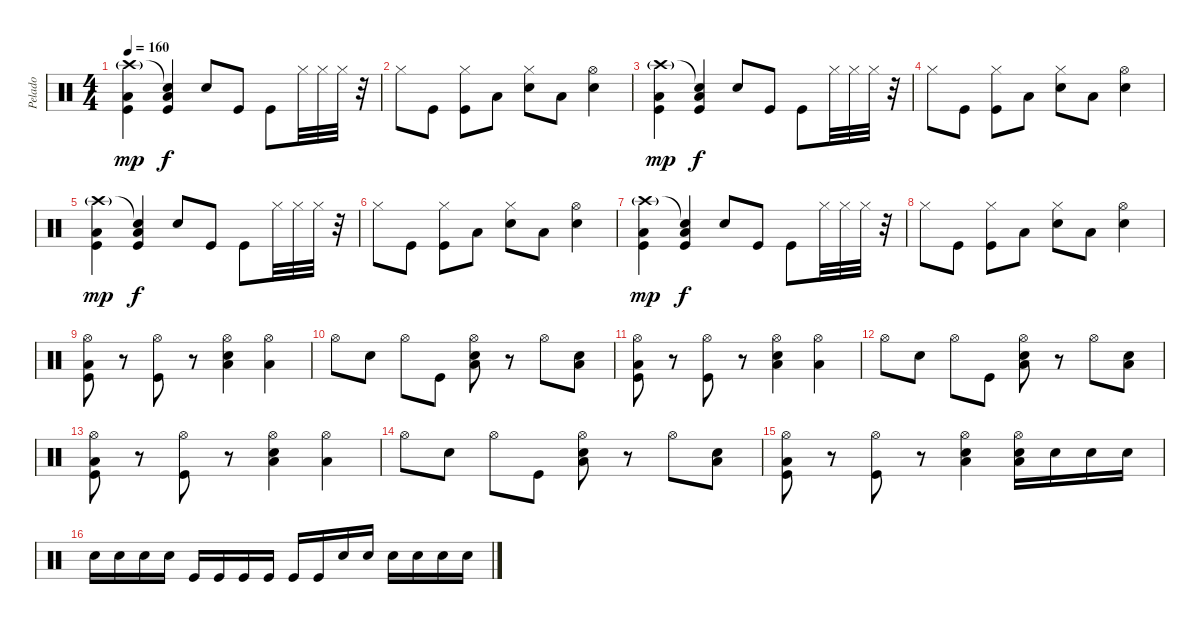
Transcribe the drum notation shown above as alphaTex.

\track ("Pelado" "Pelado") {instrument percussion}
\staff {score}
\articulation defaults
\ts (4 4)
\tempo 160
\clef neutral
\ks c
("Crash high (hit)"{g} "Kick (hit)" "Low Tom (hit)").4{dy mp} ("Snare (hit)"{t} "Kick (hit)" "Low Tom (hit)").4{dy f} "Snare (hit) 2".8 "Kick (hit)".8 "Kick (hit)".8 "Hi-Hat (closed)".32 "Hi-Hat (closed)".32 "Hi-Hat (closed)".32 r.32 |
"Hi-Hat (closed)".8 "Kick (hit)".8 ("Hi-Hat (closed)" "Kick (hit)").8 "Low Tom (hit)".8 ("Hi-Hat (closed)" "Snare (hit) 2").8 "Low Tom (hit)".8 ("Hi-Hat (open)" "Snare (hit) 2").4 |
("Crash high (hit)"{g} "Kick (hit)" "Low Tom (hit)").4{dy mp} ("Snare (hit)"{t} "Kick (hit)" "Low Tom (hit)").4{dy f} "Snare (hit) 2".8 "Kick (hit)".8 "Kick (hit)".8 "Hi-Hat (closed)".32 "Hi-Hat (closed)".32 "Hi-Hat (closed)".32 r.32 |
"Hi-Hat (closed)".8 "Kick (hit)".8 ("Hi-Hat (closed)" "Kick (hit)").8 "Low Tom (hit)".8 ("Hi-Hat (closed)" "Snare (hit) 2").8 "Low Tom (hit)".8 ("Hi-Hat (open)" "Snare (hit) 2").4 |
("Crash high (hit)"{g} "Kick (hit)" "Low Tom (hit)").4{dy mp} ("Snare (hit)"{t} "Kick (hit)" "Low Tom (hit)").4{dy f} "Snare (hit) 2".8 "Kick (hit)".8 "Kick (hit)".8 "Hi-Hat (closed)".32 "Hi-Hat (closed)".32 "Hi-Hat (closed)".32 r.32 |
"Hi-Hat (closed)".8 "Kick (hit)".8 ("Hi-Hat (closed)" "Kick (hit)").8 "Low Tom (hit)".8 ("Hi-Hat (closed)" "Snare (hit) 2").8 "Low Tom (hit)".8 ("Hi-Hat (open)" "Snare (hit) 2").4 |
("Crash high (hit)"{g} "Kick (hit)" "Low Tom (hit)").4{dy mp} ("Snare (hit)"{t} "Kick (hit)" "Low Tom (hit)").4{dy f} "Snare (hit) 2".8 "Kick (hit)".8 "Kick (hit)".8 "Hi-Hat (closed)".32 "Hi-Hat (closed)".32 "Hi-Hat (closed)".32 r.32 |
"Hi-Hat (closed)".8 "Kick (hit)".8 ("Hi-Hat (closed)" "Kick (hit)").8 "Low Tom (hit)".8 ("Hi-Hat (closed)" "Snare (hit) 2").8 "Low Tom (hit)".8 ("Hi-Hat (open)" "Snare (hit) 2").4 |
("Hi-Hat (open)" "Kick (hit)" "Low Tom (hit)").8 r.8 ("Hi-Hat (open)" "Kick (hit)").8 r.8 ("Hi-Hat (open)" "Snare (hit) 2" "Low Tom (hit)").4 ("Hi-Hat (open)" "Low Tom (hit)").4 |
"Hi-Hat (open)".8 "Snare (hit) 2".8 "Hi-Hat (open)".8 "Kick (hit)".8 ("Hi-Hat (open)" "Snare (hit) 2" "Low Tom (hit)").8 r.8 "Hi-Hat (open)".8 ("Snare (hit) 2" "Low Tom (hit)").8 |
("Hi-Hat (open)" "Kick (hit)" "Low Tom (hit)").8 r.8 ("Hi-Hat (open)" "Kick (hit)").8 r.8 ("Hi-Hat (open)" "Snare (hit) 2" "Low Tom (hit)").4 ("Hi-Hat (open)" "Low Tom (hit)").4 |
"Hi-Hat (open)".8 "Snare (hit) 2".8 "Hi-Hat (open)".8 "Kick (hit)".8 ("Hi-Hat (open)" "Snare (hit) 2" "Low Tom (hit)").8 r.8 "Hi-Hat (open)".8 ("Snare (hit) 2" "Low Tom (hit)").8 |
("Hi-Hat (open)" "Kick (hit)" "Low Tom (hit)").8 r.8 ("Hi-Hat (open)" "Kick (hit)").8 r.8 ("Hi-Hat (open)" "Snare (hit) 2" "Low Tom (hit)").4 ("Hi-Hat (open)" "Low Tom (hit)").4 |
"Hi-Hat (open)".8 "Snare (hit) 2".8 "Hi-Hat (open)".8 "Kick (hit)".8 ("Hi-Hat (open)" "Snare (hit) 2" "Low Tom (hit)").8 r.8 "Hi-Hat (open)".8 ("Snare (hit) 2" "Low Tom (hit)").8 |
("Hi-Hat (open)" "Kick (hit)" "Low Tom (hit)").8 r.8 ("Hi-Hat (open)" "Kick (hit)").8 r.8 ("Hi-Hat (open)" "Snare (hit) 2" "Low Tom (hit)").4 ("Hi-Hat (open)" "Snare (hit) 2" "Low Tom (hit)").16 "Snare (hit) 2".16 "Snare (hit) 2".16 "Snare (hit) 2".16 |
"Snare (hit) 2".16 "Snare (hit) 2".16 "Snare (hit) 2".16 "Snare (hit) 2".16 "Kick (hit)".16 "Kick (hit)".16 "Kick (hit)".16 "Kick (hit)".16 "Kick (hit)".16 "Kick (hit)".16 "Snare (hit) 2".16 "Snare (hit) 2".16 "Snare (hit) 2".16 "Snare (hit) 2".16 "Snare (hit) 2".16 "Snare (hit) 2".16
